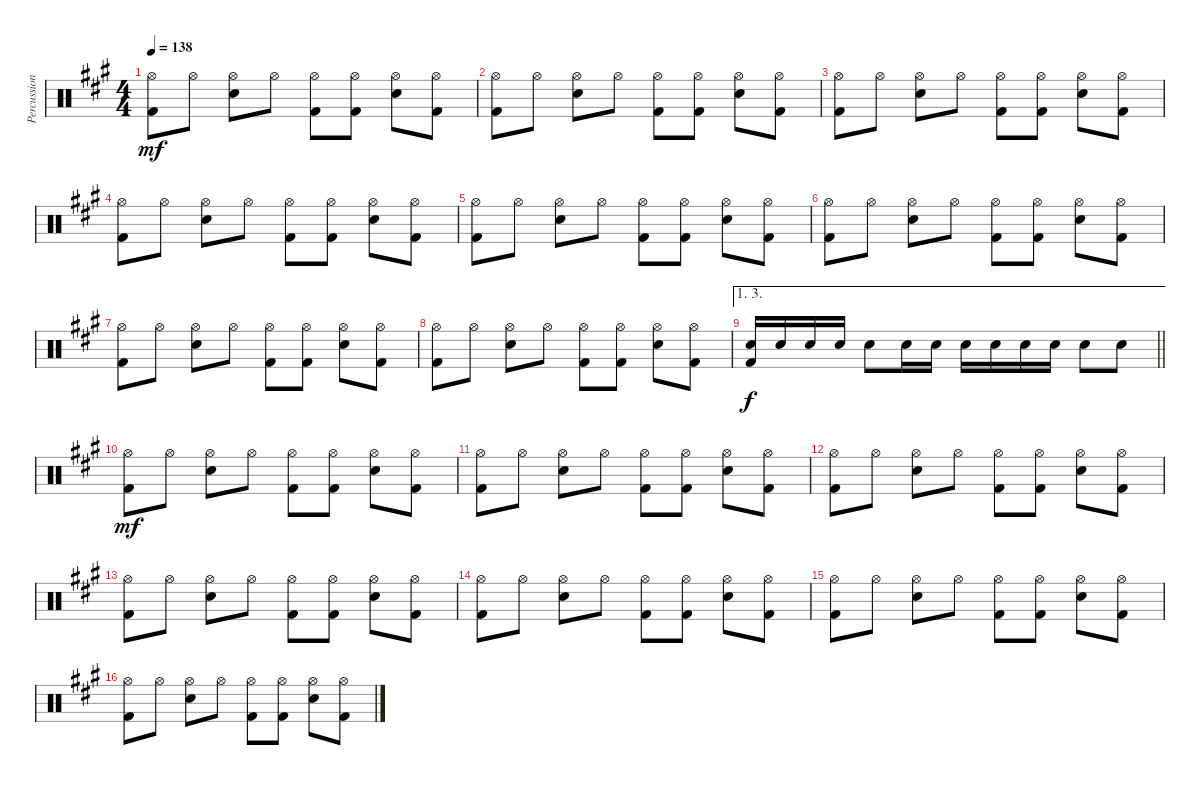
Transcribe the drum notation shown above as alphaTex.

\track ("Percussion" "Percussion") {instrument percussion}
\staff {score}
\articulation defaults
\ts (4 4)
\tempo 138
\clef neutral
\ks a
("Hi-Hat (open)" "Kick (hit) 2").8{dy mf} "Hi-Hat (open)".8 ("Hi-Hat (open)" "Snare (hit) 2").8 "Hi-Hat (open)".8 ("Hi-Hat (open)" "Kick (hit) 2").8 ("Hi-Hat (open)" "Kick (hit) 2").8 ("Hi-Hat (open)" "Snare (hit) 2").8 ("Hi-Hat (open)" "Kick (hit) 2").8 |
("Hi-Hat (open)" "Kick (hit) 2").8 "Hi-Hat (open)".8 ("Hi-Hat (open)" "Snare (hit) 2").8 "Hi-Hat (open)".8 ("Hi-Hat (open)" "Kick (hit) 2").8 ("Hi-Hat (open)" "Kick (hit) 2").8 ("Hi-Hat (open)" "Snare (hit) 2").8 ("Hi-Hat (open)" "Kick (hit) 2").8 |
("Hi-Hat (open)" "Kick (hit) 2").8 "Hi-Hat (open)".8 ("Hi-Hat (open)" "Snare (hit) 2").8 "Hi-Hat (open)".8 ("Hi-Hat (open)" "Kick (hit) 2").8 ("Hi-Hat (open)" "Kick (hit) 2").8 ("Hi-Hat (open)" "Snare (hit) 2").8 ("Hi-Hat (open)" "Kick (hit) 2").8 |
("Hi-Hat (open)" "Kick (hit) 2").8 "Hi-Hat (open)".8 ("Hi-Hat (open)" "Snare (hit) 2").8 "Hi-Hat (open)".8 ("Hi-Hat (open)" "Kick (hit) 2").8 ("Hi-Hat (open)" "Kick (hit) 2").8 ("Hi-Hat (open)" "Snare (hit) 2").8 ("Hi-Hat (open)" "Kick (hit) 2").8 |
("Hi-Hat (open)" "Kick (hit) 2").8 "Hi-Hat (open)".8 ("Hi-Hat (open)" "Snare (hit) 2").8 "Hi-Hat (open)".8 ("Hi-Hat (open)" "Kick (hit) 2").8 ("Hi-Hat (open)" "Kick (hit) 2").8 ("Hi-Hat (open)" "Snare (hit) 2").8 ("Hi-Hat (open)" "Kick (hit) 2").8 |
("Hi-Hat (open)" "Kick (hit) 2").8 "Hi-Hat (open)".8 ("Hi-Hat (open)" "Snare (hit) 2").8 "Hi-Hat (open)".8 ("Hi-Hat (open)" "Kick (hit) 2").8 ("Hi-Hat (open)" "Kick (hit) 2").8 ("Hi-Hat (open)" "Snare (hit) 2").8 ("Hi-Hat (open)" "Kick (hit) 2").8 |
("Hi-Hat (open)" "Kick (hit) 2").8 "Hi-Hat (open)".8 ("Hi-Hat (open)" "Snare (hit) 2").8 "Hi-Hat (open)".8 ("Hi-Hat (open)" "Kick (hit) 2").8 ("Hi-Hat (open)" "Kick (hit) 2").8 ("Hi-Hat (open)" "Snare (hit) 2").8 ("Hi-Hat (open)" "Kick (hit) 2").8 |
("Hi-Hat (open)" "Kick (hit) 2").8 "Hi-Hat (open)".8 ("Hi-Hat (open)" "Snare (hit) 2").8 "Hi-Hat (open)".8 ("Hi-Hat (open)" "Kick (hit) 2").8 ("Hi-Hat (open)" "Kick (hit) 2").8 ("Hi-Hat (open)" "Snare (hit) 2").8 ("Hi-Hat (open)" "Kick (hit) 2").8 |
\ae (1 3)
\barLineRight lightlight
("Snare (hit) 2" "Kick (hit) 2").16{dy f} "Snare (hit) 2".16 "Snare (hit) 2".16 "Snare (hit) 2".16 "Snare (hit) 2".8 "Snare (hit) 2".16 "Snare (hit) 2".16 "Snare (hit) 2".16 "Snare (hit) 2".16 "Snare (hit) 2".16 "Snare (hit) 2".16 "Snare (hit) 2".8 "Snare (hit) 2".8 |
("Hi-Hat (open)" "Kick (hit) 2").8{dy mf} "Hi-Hat (open)".8 ("Hi-Hat (open)" "Snare (hit) 2").8 "Hi-Hat (open)".8 ("Hi-Hat (open)" "Kick (hit) 2").8 ("Hi-Hat (open)" "Kick (hit) 2").8 ("Hi-Hat (open)" "Snare (hit) 2").8 ("Hi-Hat (open)" "Kick (hit) 2").8 |
("Hi-Hat (open)" "Kick (hit) 2").8 "Hi-Hat (open)".8 ("Hi-Hat (open)" "Snare (hit) 2").8 "Hi-Hat (open)".8 ("Hi-Hat (open)" "Kick (hit) 2").8 ("Hi-Hat (open)" "Kick (hit) 2").8 ("Hi-Hat (open)" "Snare (hit) 2").8 ("Hi-Hat (open)" "Kick (hit) 2").8 |
("Hi-Hat (open)" "Kick (hit) 2").8 "Hi-Hat (open)".8 ("Hi-Hat (open)" "Snare (hit) 2").8 "Hi-Hat (open)".8 ("Hi-Hat (open)" "Kick (hit) 2").8 ("Hi-Hat (open)" "Kick (hit) 2").8 ("Hi-Hat (open)" "Snare (hit) 2").8 ("Hi-Hat (open)" "Kick (hit) 2").8 |
("Hi-Hat (open)" "Kick (hit) 2").8 "Hi-Hat (open)".8 ("Hi-Hat (open)" "Snare (hit) 2").8 "Hi-Hat (open)".8 ("Hi-Hat (open)" "Kick (hit) 2").8 ("Hi-Hat (open)" "Kick (hit) 2").8 ("Hi-Hat (open)" "Snare (hit) 2").8 ("Hi-Hat (open)" "Kick (hit) 2").8 |
("Hi-Hat (open)" "Kick (hit) 2").8 "Hi-Hat (open)".8 ("Hi-Hat (open)" "Snare (hit) 2").8 "Hi-Hat (open)".8 ("Hi-Hat (open)" "Kick (hit) 2").8 ("Hi-Hat (open)" "Kick (hit) 2").8 ("Hi-Hat (open)" "Snare (hit) 2").8 ("Hi-Hat (open)" "Kick (hit) 2").8 |
("Hi-Hat (open)" "Kick (hit) 2").8 "Hi-Hat (open)".8 ("Hi-Hat (open)" "Snare (hit) 2").8 "Hi-Hat (open)".8 ("Hi-Hat (open)" "Kick (hit) 2").8 ("Hi-Hat (open)" "Kick (hit) 2").8 ("Hi-Hat (open)" "Snare (hit) 2").8 ("Hi-Hat (open)" "Kick (hit) 2").8 |
("Hi-Hat (open)" "Kick (hit) 2").8 "Hi-Hat (open)".8 ("Hi-Hat (open)" "Snare (hit) 2").8 "Hi-Hat (open)".8 ("Hi-Hat (open)" "Kick (hit) 2").8 ("Hi-Hat (open)" "Kick (hit) 2").8 ("Hi-Hat (open)" "Snare (hit) 2").8 ("Hi-Hat (open)" "Kick (hit) 2").8
